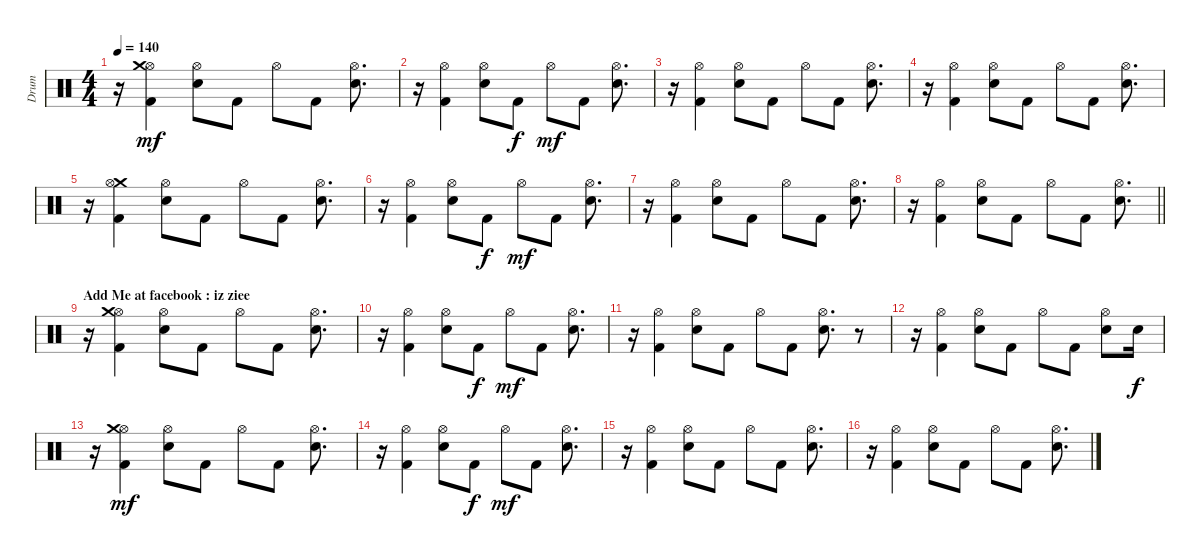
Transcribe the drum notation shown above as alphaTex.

\track ("Drum" "Drum") {instrument percussion}
\staff {score}
\articulation defaults
\ts (4 4)
\tempo 140
\clef neutral
\ks c
r.16{dy mf} ("Kick (hit) 2" "Hi-Hat (open)" "Crash medium (hit)").4 ("Electric Snare (hit)" "Hi-Hat (open)").8 "Kick (hit) 2".8 "Hi-Hat (open)".8 "Kick (hit) 2".8 ("Electric Snare (hit)" "Hi-Hat (open)").8{d} |
r.16 ("Kick (hit) 2" "Hi-Hat (open)").4 ("Hi-Hat (open)" "Electric Snare (hit)").8 "Kick (hit) 2".8{dy f} "Hi-Hat (open)".8{dy mf} "Kick (hit) 2".8 ("Electric Snare (hit)" "Hi-Hat (open)").8{d} |
r.16 ("Hi-Hat (open)" "Kick (hit) 2").4 ("Hi-Hat (open)" "Electric Snare (hit)").8 "Kick (hit) 2".8 "Hi-Hat (open)".8 "Kick (hit) 2".8 ("Electric Snare (hit)" "Hi-Hat (open)").8{d} |
r.16 ("Kick (hit) 2" "Hi-Hat (open)").4 ("Electric Snare (hit)" "Hi-Hat (open)").8 "Kick (hit) 2".8 "Hi-Hat (open)".8 "Kick (hit) 2".8 ("Electric Snare (hit)" "Hi-Hat (open)").8{d} |
r.16 ("Crash medium (hit)" "Hi-Hat (open)" "Kick (hit) 2").4 ("Hi-Hat (open)" "Electric Snare (hit)").8 "Kick (hit) 2".8 "Hi-Hat (open)".8 "Kick (hit) 2".8 ("Hi-Hat (open)" "Electric Snare (hit)").8{d} |
r.16 ("Kick (hit) 2" "Hi-Hat (open)").4 ("Electric Snare (hit)" "Hi-Hat (open)").8 "Kick (hit) 2".8{dy f} "Hi-Hat (open)".8{dy mf} "Kick (hit) 2".8 ("Hi-Hat (open)" "Electric Snare (hit)").8{d} |
r.16 ("Hi-Hat (open)" "Kick (hit) 2").4 ("Hi-Hat (open)" "Electric Snare (hit)").8 "Kick (hit) 2".8 "Hi-Hat (open)".8 "Kick (hit) 2".8 ("Electric Snare (hit)" "Hi-Hat (open)").8{d} |
\barLineRight lightlight
r.16 ("Kick (hit) 2" "Hi-Hat (open)").4 ("Hi-Hat (open)" "Electric Snare (hit)").8 "Kick (hit) 2".8 "Hi-Hat (open)".8 "Kick (hit) 2".8 ("Hi-Hat (open)" "Electric Snare (hit)").8{d} |
\section ("" "Add Me at facebook : iz ziee")
r.16 ("Hi-Hat (open)" "Crash medium (hit)" "Kick (hit) 2").4 ("Electric Snare (hit)" "Hi-Hat (open)").8 "Kick (hit) 2".8 "Hi-Hat (open)".8 "Kick (hit) 2".8 ("Electric Snare (hit)" "Hi-Hat (open)").8{d} |
r.16 ("Kick (hit) 2" "Hi-Hat (open)").4 ("Electric Snare (hit)" "Hi-Hat (open)").8 "Kick (hit) 2".8{dy f} "Hi-Hat (open)".8{dy mf} "Kick (hit) 2".8 ("Electric Snare (hit)" "Hi-Hat (open)").8{d} |
r.16 ("Kick (hit) 2" "Hi-Hat (open)").4 ("Hi-Hat (open)" "Electric Snare (hit)").8 "Kick (hit) 2".8 "Hi-Hat (open)".8 "Kick (hit) 2".8 ("Electric Snare (hit)" "Hi-Hat (open)").8{d} r.8 |
r.16 ("Hi-Hat (open)" "Kick (hit) 2").4 ("Hi-Hat (open)" "Electric Snare (hit)").8 "Kick (hit) 2".8 "Hi-Hat (open)".8 "Kick (hit) 2".8 ("Hi-Hat (open)" "Electric Snare (hit)").8 "Electric Snare (hit)".16{dy f} |
r.16 ("Hi-Hat (open)" "Kick (hit) 2" "Crash medium (hit)").4{dy mf} ("Electric Snare (hit)" "Hi-Hat (open)").8 "Kick (hit) 2".8 "Hi-Hat (open)".8 "Kick (hit) 2".8 ("Hi-Hat (open)" "Electric Snare (hit)").8{d} |
r.16 ("Hi-Hat (open)" "Kick (hit) 2").4 ("Electric Snare (hit)" "Hi-Hat (open)").8 "Kick (hit) 2".8{dy f} "Hi-Hat (open)".8{dy mf} "Kick (hit) 2".8 ("Hi-Hat (open)" "Electric Snare (hit)").8{d} |
r.16 ("Kick (hit) 2" "Hi-Hat (open)").4 ("Electric Snare (hit)" "Hi-Hat (open)").8 "Kick (hit) 2".8 "Hi-Hat (open)".8 "Kick (hit) 2".8 ("Hi-Hat (open)" "Electric Snare (hit)").8{d} |
r.16 ("Kick (hit) 2" "Hi-Hat (open)").4 ("Hi-Hat (open)" "Electric Snare (hit)").8 "Kick (hit) 2".8 "Hi-Hat (open)".8 "Kick (hit) 2".8 ("Electric Snare (hit)" "Hi-Hat (open)").8{d}
